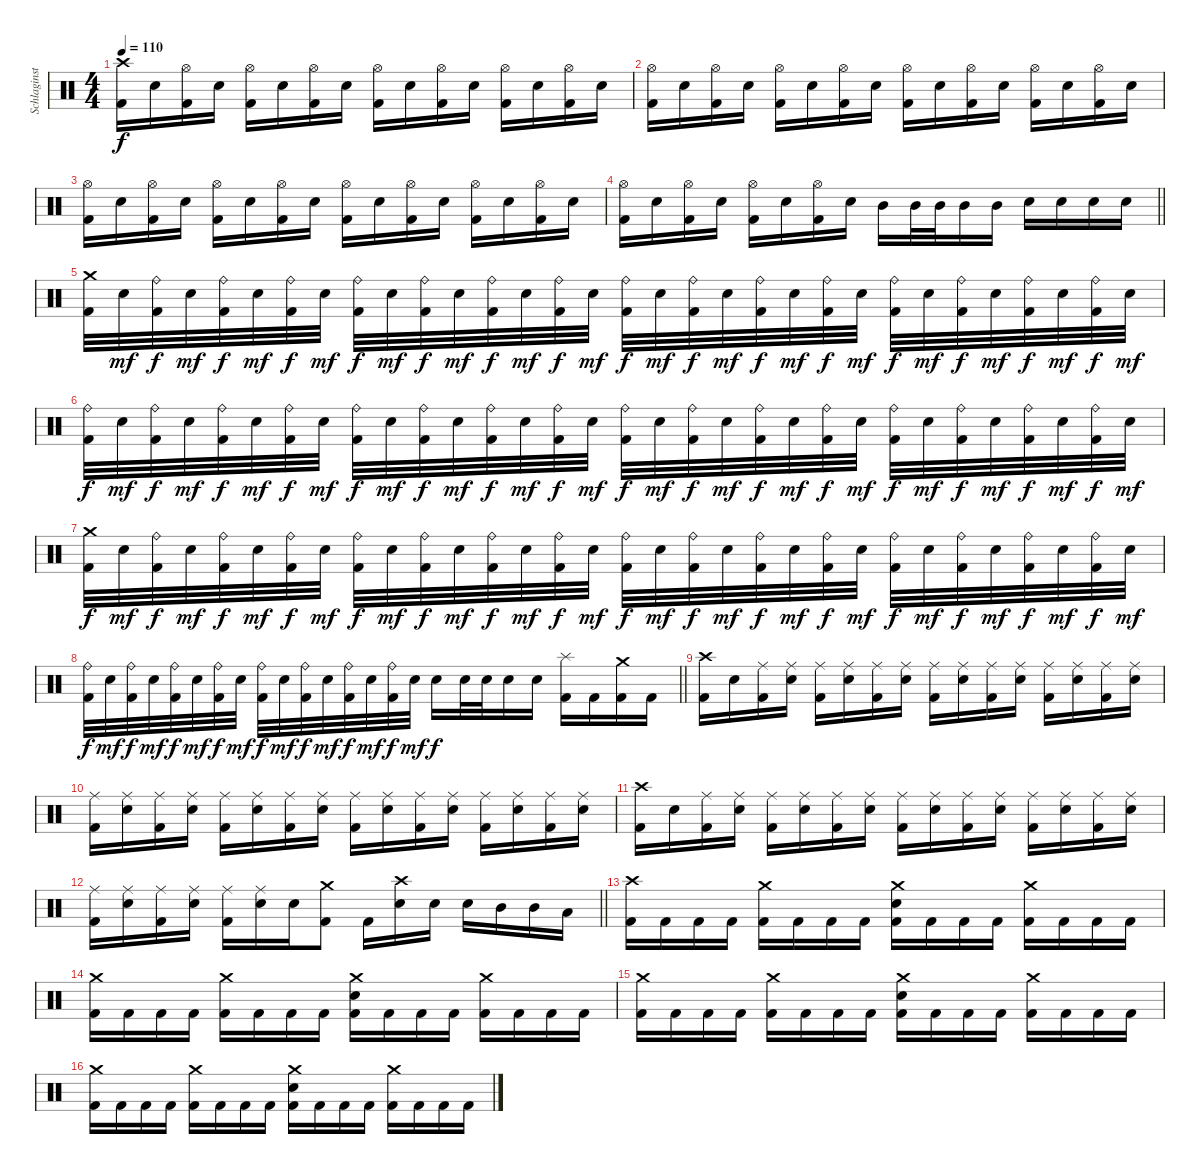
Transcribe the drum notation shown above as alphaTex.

\track ("Schlaginstrumente - Auswahl" "Schlaginst") {instrument percussion}
\staff {score}
\articulation defaults
\ts (4 4)
\tempo 110
\clef neutral
\ks c
("Crash high (hit)" "Kick (hit) 2").16{dy f} "Electric Snare (hit)".16 ("Hi-Hat (open)" "Kick (hit) 2").16 "Electric Snare (hit)".16 ("Hi-Hat (open)" "Kick (hit) 2").16 "Electric Snare (hit)".16 ("Hi-Hat (open)" "Kick (hit) 2").16 "Electric Snare (hit)".16 ("Hi-Hat (open)" "Kick (hit) 2").16 "Electric Snare (hit)".16 ("Hi-Hat (open)" "Kick (hit) 2").16 "Electric Snare (hit)".16 ("Hi-Hat (open)" "Kick (hit) 2").16 "Electric Snare (hit)".16 ("Hi-Hat (open)" "Kick (hit) 2").16 "Electric Snare (hit)".16 |
("Hi-Hat (open)" "Kick (hit) 2").16 "Electric Snare (hit)".16 ("Hi-Hat (open)" "Kick (hit) 2").16 "Electric Snare (hit)".16 ("Hi-Hat (open)" "Kick (hit) 2").16 "Electric Snare (hit)".16 ("Hi-Hat (open)" "Kick (hit) 2").16 "Electric Snare (hit)".16 ("Hi-Hat (open)" "Kick (hit) 2").16 "Electric Snare (hit)".16 ("Hi-Hat (open)" "Kick (hit) 2").16 "Electric Snare (hit)".16 ("Hi-Hat (open)" "Kick (hit) 2").16 "Electric Snare (hit)".16 ("Hi-Hat (open)" "Kick (hit) 2").16 "Electric Snare (hit)".16 |
("Hi-Hat (open)" "Kick (hit) 2").16 "Electric Snare (hit)".16 ("Hi-Hat (open)" "Kick (hit) 2").16 "Electric Snare (hit)".16 ("Hi-Hat (open)" "Kick (hit) 2").16 "Electric Snare (hit)".16 ("Hi-Hat (open)" "Kick (hit) 2").16 "Electric Snare (hit)".16 ("Hi-Hat (open)" "Kick (hit) 2").16 "Electric Snare (hit)".16 ("Hi-Hat (open)" "Kick (hit) 2").16 "Electric Snare (hit)".16 ("Hi-Hat (open)" "Kick (hit) 2").16 "Electric Snare (hit)".16 ("Hi-Hat (open)" "Kick (hit) 2").16 "Electric Snare (hit)".16 |
\barLineRight lightlight
("Hi-Hat (open)" "Kick (hit) 2").16 "Electric Snare (hit)".16 ("Hi-Hat (open)" "Kick (hit) 2").16 "Electric Snare (hit)".16 ("Hi-Hat (open)" "Kick (hit) 2").16 "Electric Snare (hit)".16 ("Hi-Hat (open)" "Kick (hit) 2").16 "Electric Snare (hit)".16 "Mid Tom (hit)".16 "Mid Tom (hit)".32 "Mid Tom (hit)".32 "Mid Tom (hit)".16 "Mid Tom (hit)".16 "Electric Snare (hit)".16 "Electric Snare (hit)".16 "Electric Snare (hit)".16 "Electric Snare (hit)".16 |
("Crash medium (hit)" "Kick (hit) 2").32 "Electric Snare (hit)".32{dy mf} ("Ride (bell)" "Kick (hit) 2").32{dy f} "Electric Snare (hit)".32{dy mf} ("Ride (bell)" "Kick (hit) 2").32{dy f} "Electric Snare (hit)".32{dy mf} ("Ride (bell)" "Kick (hit) 2").32{dy f} "Electric Snare (hit)".32{dy mf} ("Ride (bell)" "Kick (hit) 2").32{dy f} "Electric Snare (hit)".32{dy mf} ("Ride (bell)" "Kick (hit) 2").32{dy f} "Electric Snare (hit)".32{dy mf} ("Ride (bell)" "Kick (hit) 2").32{dy f} "Electric Snare (hit)".32{dy mf} ("Ride (bell)" "Kick (hit) 2").32{dy f} "Electric Snare (hit)".32{dy mf} ("Ride (bell)" "Kick (hit) 2").32{dy f} "Electric Snare (hit)".32{dy mf} ("Ride (bell)" "Kick (hit) 2").32{dy f} "Electric Snare (hit)".32{dy mf} ("Ride (bell)" "Kick (hit) 2").32{dy f} "Electric Snare (hit)".32{dy mf} ("Ride (bell)" "Kick (hit) 2").32{dy f} "Electric Snare (hit)".32{dy mf} ("Ride (bell)" "Kick (hit) 2").32{dy f} "Electric Snare (hit)".32{dy mf} ("Ride (bell)" "Kick (hit) 2").32{dy f} "Electric Snare (hit)".32{dy mf} ("Ride (bell)" "Kick (hit) 2").32{dy f} "Electric Snare (hit)".32{dy mf} ("Ride (bell)" "Kick (hit) 2").32{dy f} "Electric Snare (hit)".32{dy mf} |
("Ride (bell)" "Kick (hit) 2").32{dy f} "Electric Snare (hit)".32{dy mf} ("Ride (bell)" "Kick (hit) 2").32{dy f} "Electric Snare (hit)".32{dy mf} ("Ride (bell)" "Kick (hit) 2").32{dy f} "Electric Snare (hit)".32{dy mf} ("Ride (bell)" "Kick (hit) 2").32{dy f} "Electric Snare (hit)".32{dy mf} ("Ride (bell)" "Kick (hit) 2").32{dy f} "Electric Snare (hit)".32{dy mf} ("Ride (bell)" "Kick (hit) 2").32{dy f} "Electric Snare (hit)".32{dy mf} ("Ride (bell)" "Kick (hit) 2").32{dy f} "Electric Snare (hit)".32{dy mf} ("Ride (bell)" "Kick (hit) 2").32{dy f} "Electric Snare (hit)".32{dy mf} ("Ride (bell)" "Kick (hit) 2").32{dy f} "Electric Snare (hit)".32{dy mf} ("Ride (bell)" "Kick (hit) 2").32{dy f} "Electric Snare (hit)".32{dy mf} ("Ride (bell)" "Kick (hit) 2").32{dy f} "Electric Snare (hit)".32{dy mf} ("Ride (bell)" "Kick (hit) 2").32{dy f} "Electric Snare (hit)".32{dy mf} ("Ride (bell)" "Kick (hit) 2").32{dy f} "Electric Snare (hit)".32{dy mf} ("Ride (bell)" "Kick (hit) 2").32{dy f} "Electric Snare (hit)".32{dy mf} ("Ride (bell)" "Kick (hit) 2").32{dy f} "Electric Snare (hit)".32{dy mf} ("Ride (bell)" "Kick (hit) 2").32{dy f} "Electric Snare (hit)".32{dy mf} |
("Crash medium (hit)" "Kick (hit) 2").32{dy f} "Electric Snare (hit)".32{dy mf} ("Ride (bell)" "Kick (hit) 2").32{dy f} "Electric Snare (hit)".32{dy mf} ("Ride (bell)" "Kick (hit) 2").32{dy f} "Electric Snare (hit)".32{dy mf} ("Ride (bell)" "Kick (hit) 2").32{dy f} "Electric Snare (hit)".32{dy mf} ("Ride (bell)" "Kick (hit) 2").32{dy f} "Electric Snare (hit)".32{dy mf} ("Ride (bell)" "Kick (hit) 2").32{dy f} "Electric Snare (hit)".32{dy mf} ("Ride (bell)" "Kick (hit) 2").32{dy f} "Electric Snare (hit)".32{dy mf} ("Ride (bell)" "Kick (hit) 2").32{dy f} "Electric Snare (hit)".32{dy mf} ("Ride (bell)" "Kick (hit) 2").32{dy f} "Electric Snare (hit)".32{dy mf} ("Ride (bell)" "Kick (hit) 2").32{dy f} "Electric Snare (hit)".32{dy mf} ("Ride (bell)" "Kick (hit) 2").32{dy f} "Electric Snare (hit)".32{dy mf} ("Ride (bell)" "Kick (hit) 2").32{dy f} "Electric Snare (hit)".32{dy mf} ("Ride (bell)" "Kick (hit) 2").32{dy f} "Electric Snare (hit)".32{dy mf} ("Ride (bell)" "Kick (hit) 2").32{dy f} "Electric Snare (hit)".32{dy mf} ("Ride (bell)" "Kick (hit) 2").32{dy f} "Electric Snare (hit)".32{dy mf} ("Ride (bell)" "Kick (hit) 2").32{dy f} "Electric Snare (hit)".32{dy mf} |
\barLineRight lightlight
("Ride (bell)" "Kick (hit) 2").32{dy f} "Electric Snare (hit)".32{dy mf} ("Ride (bell)" "Kick (hit) 2").32{dy f} "Electric Snare (hit)".32{dy mf} ("Ride (bell)" "Kick (hit) 2").32{dy f} "Electric Snare (hit)".32{dy mf} ("Ride (bell)" "Kick (hit) 2").32{dy f} "Electric Snare (hit)".32{dy mf} ("Ride (bell)" "Kick (hit) 2").32{dy f} "Electric Snare (hit)".32{dy mf} ("Ride (bell)" "Kick (hit) 2").32{dy f} "Electric Snare (hit)".32{dy mf} ("Ride (bell)" "Kick (hit) 2").32{dy f} "Electric Snare (hit)".32{dy mf} ("Ride (bell)" "Kick (hit) 2").32{dy f} "Electric Snare (hit)".32{dy mf} "Electric Snare (hit)".16{dy f} "Electric Snare (hit)".32 "Electric Snare (hit)".32 "Electric Snare (hit)".16 "Electric Snare (hit)".16 ("Splash (hit)" "Kick (hit) 2").16 "Kick (hit) 2".16 ("Crash medium (hit)" "Kick (hit) 2").16 "Kick (hit) 2".16 |
("Crash high (hit)" "Kick (hit) 2").16 "Electric Snare (hit)".16 ("Ride (middle)" "Kick (hit) 2").16 ("Ride (middle)" "Electric Snare (hit)").16 ("Ride (middle)" "Kick (hit) 2").16 ("Ride (middle)" "Electric Snare (hit)").16 ("Ride (middle)" "Kick (hit) 2").16 ("Ride (middle)" "Electric Snare (hit)").16 ("Ride (middle)" "Kick (hit) 2").16 ("Ride (middle)" "Electric Snare (hit)").16 ("Ride (middle)" "Kick (hit) 2").16 ("Ride (middle)" "Electric Snare (hit)").16 ("Ride (middle)" "Kick (hit) 2").16 ("Ride (middle)" "Electric Snare (hit)").16 ("Ride (middle)" "Kick (hit) 2").16 ("Ride (middle)" "Electric Snare (hit)").16 |
("Ride (middle)" "Kick (hit) 2").16 ("Ride (middle)" "Electric Snare (hit)").16 ("Ride (middle)" "Kick (hit) 2").16 ("Ride (middle)" "Electric Snare (hit)").16 ("Ride (middle)" "Kick (hit) 2").16 ("Ride (middle)" "Electric Snare (hit)").16 ("Ride (middle)" "Kick (hit) 2").16 ("Ride (middle)" "Electric Snare (hit)").16 ("Ride (middle)" "Kick (hit) 2").16 ("Ride (middle)" "Electric Snare (hit)").16 ("Ride (middle)" "Kick (hit) 2").16 ("Ride (middle)" "Electric Snare (hit)").16 ("Ride (middle)" "Kick (hit) 2").16 ("Ride (middle)" "Electric Snare (hit)").16 ("Ride (middle)" "Kick (hit) 2").16 ("Ride (middle)" "Electric Snare (hit)").16 |
("Crash high (hit)" "Kick (hit) 2").16 "Electric Snare (hit)".16 ("Ride (middle)" "Kick (hit) 2").16 ("Ride (middle)" "Electric Snare (hit)").16 ("Ride (middle)" "Kick (hit) 2").16 ("Ride (middle)" "Electric Snare (hit)").16 ("Ride (middle)" "Kick (hit) 2").16 ("Ride (middle)" "Electric Snare (hit)").16 ("Ride (middle)" "Kick (hit) 2").16 ("Ride (middle)" "Electric Snare (hit)").16 ("Ride (middle)" "Kick (hit) 2").16 ("Ride (middle)" "Electric Snare (hit)").16 ("Ride (middle)" "Kick (hit) 2").16 ("Ride (middle)" "Electric Snare (hit)").16 ("Ride (middle)" "Kick (hit) 2").16 ("Ride (middle)" "Electric Snare (hit)").16 |
\barLineRight lightlight
("Ride (middle)" "Kick (hit) 2").16 ("Ride (middle)" "Electric Snare (hit)").16 ("Ride (middle)" "Kick (hit) 2").16 ("Ride (middle)" "Electric Snare (hit)").16 ("Ride (middle)" "Kick (hit) 2").16 ("Ride (middle)" "Electric Snare (hit)").16 "Electric Snare (hit)".16 ("Crash medium (hit)" "Kick (hit) 2").8 "Kick (hit) 2".16 ("Crash high (hit)" "Electric Snare (hit)").16 "Electric Snare (hit)".16 "Electric Snare (hit)".16 "Mid Tom (hit)".16 "Mid Tom (hit)".16 "Low Tom (hit)".16 |
("Crash high (hit)" "Kick (hit) 2").16 "Kick (hit) 2".16 "Kick (hit) 2".16 "Kick (hit) 2".16 ("Crash medium (hit)" "Kick (hit) 2").16 "Kick (hit) 2".16 "Kick (hit) 2".16 "Kick (hit) 2".16 ("Crash medium (hit)" "Electric Snare (hit)" "Kick (hit) 2").16 "Kick (hit) 2".16 "Kick (hit) 2".16 "Kick (hit) 2".16 ("Crash medium (hit)" "Kick (hit) 2").16 "Kick (hit) 2".16 "Kick (hit) 2".16 "Kick (hit) 2".16 |
("Crash medium (hit)" "Kick (hit) 2").16 "Kick (hit) 2".16 "Kick (hit) 2".16 "Kick (hit) 2".16 ("Crash medium (hit)" "Kick (hit) 2").16 "Kick (hit) 2".16 "Kick (hit) 2".16 "Kick (hit) 2".16 ("Crash medium (hit)" "Electric Snare (hit)" "Kick (hit) 2").16 "Kick (hit) 2".16 "Kick (hit) 2".16 "Kick (hit) 2".16 ("Crash medium (hit)" "Kick (hit) 2").16 "Kick (hit) 2".16 "Kick (hit) 2".16 "Kick (hit) 2".16 |
("Crash medium (hit)" "Kick (hit) 2").16 "Kick (hit) 2".16 "Kick (hit) 2".16 "Kick (hit) 2".16 ("Crash medium (hit)" "Kick (hit) 2").16 "Kick (hit) 2".16 "Kick (hit) 2".16 "Kick (hit) 2".16 ("Crash medium (hit)" "Electric Snare (hit)" "Kick (hit) 2").16 "Kick (hit) 2".16 "Kick (hit) 2".16 "Kick (hit) 2".16 ("Crash medium (hit)" "Kick (hit) 2").16 "Kick (hit) 2".16 "Kick (hit) 2".16 "Kick (hit) 2".16 |
("Crash medium (hit)" "Kick (hit) 2").16 "Kick (hit) 2".16 "Kick (hit) 2".16 "Kick (hit) 2".16 ("Crash medium (hit)" "Kick (hit) 2").16 "Kick (hit) 2".16 "Kick (hit) 2".16 "Kick (hit) 2".16 ("Crash medium (hit)" "Electric Snare (hit)" "Kick (hit) 2").16 "Kick (hit) 2".16 "Kick (hit) 2".16 "Kick (hit) 2".16 ("Crash medium (hit)" "Kick (hit) 2").16 "Kick (hit) 2".16 "Kick (hit) 2".16 "Kick (hit) 2".16
